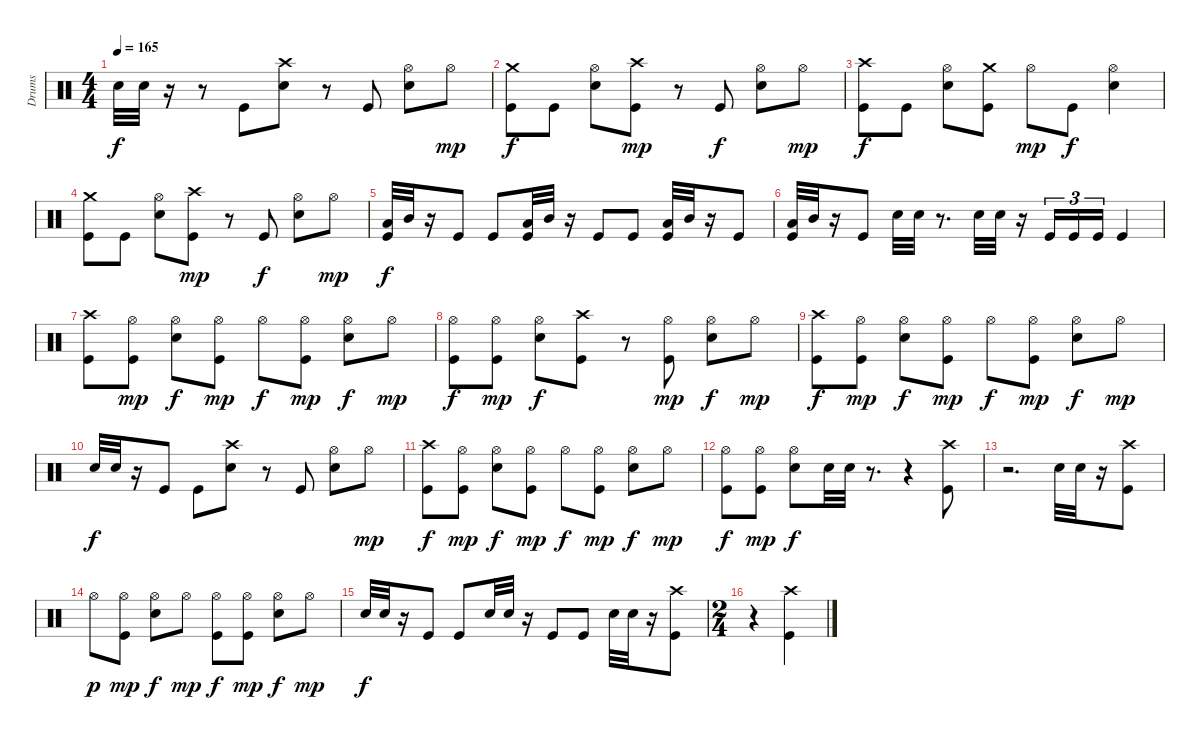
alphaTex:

\track ("Drums" "Drums") {instrument percussion}
\staff {score}
\articulation defaults
\ts (4 4)
\tempo 165
\clef neutral
\ks c "Snare (hit) 2".32{dy f} "Snare (hit) 2".32
r.16 r.8 "Kick (hit)".8 ("Crash high (hit)" "Snare (hit) 2").8 r.8 "Kick (hit)".8 ("Hi-Hat (open)" "Snare (hit) 2").8 "Hi-Hat (open)".8{dy mp} |
("Crash medium (hit)" "Kick (hit)").8{dy f} "Kick (hit)".8 ("Hi-Hat (open)" "Snare (hit) 2").8 ("Crash high (hit)" "Kick (hit)").8{dy mp} r.8 "Kick (hit)".8{dy f} ("Hi-Hat (open)" "Snare (hit) 2").8 "Hi-Hat (open)".8{dy mp} |
("Crash high (hit)" "Kick (hit)").8{dy f} "Kick (hit)".8 ("Hi-Hat (open)" "Snare (hit) 2").8 ("Crash medium (hit)" "Kick (hit)").8 "Hi-Hat (open)".8{dy mp} "Kick (hit)".8{dy f} ("Hi-Hat (open)" "Snare (hit) 2").4 |
("Crash medium (hit)" "Kick (hit)").8 "Kick (hit)".8 ("Hi-Hat (open)" "Snare (hit) 2").8 ("Crash high (hit)" "Kick (hit)").8{dy mp} r.8 "Kick (hit)".8{dy f} ("Hi-Hat (open)" "Snare (hit) 2").8 "Hi-Hat (open)".8{dy mp} |
("Low Tom (hit)" "Kick (hit)").32{dy f} "Mid Tom (hit)".32 r.16 "Kick (hit)".8 "Kick (hit)".8 ("Low Tom (hit)" "Kick (hit)").32 "Mid Tom (hit)".32 r.16 "Kick (hit)".8 "Kick (hit)".8 ("Low Tom (hit)" "Kick (hit)").32 "Mid Tom (hit)".32 r.16 "Kick (hit)".8 |
("Low Tom (hit)" "Kick (hit)").32 "Mid Tom (hit)".32 r.16 "Kick (hit)".8 "Snare (hit) 2".32 "Snare (hit) 2".32 r.8{d} "Snare (hit) 2".32 "Snare (hit) 2".32 r.16 "Kick (hit)".16{tu (3 2)} "Kick (hit)".16{tu (3 2)} "Kick (hit)".16{tu (3 2)} "Kick (hit)".4 |
("Crash high (hit)" "Kick (hit)").8 ("Hi-Hat (open)" "Kick (hit)").8{dy mp} ("Hi-Hat (open)" "Snare (hit) 2").8{dy f} ("Hi-Hat (open)" "Kick (hit)").8{dy mp} "Hi-Hat (open)".8{dy f} ("Hi-Hat (open)" "Kick (hit)").8{dy mp} ("Hi-Hat (open)" "Snare (hit) 2").8{dy f} "Hi-Hat (open)".8{dy mp} |
("Hi-Hat (open)" "Kick (hit)").8{dy f} ("Hi-Hat (open)" "Kick (hit)").8{dy mp} ("Hi-Hat (open)" "Snare (hit) 2").8{dy f} ("Crash high (hit)" "Kick (hit)").8 r.8 ("Hi-Hat (open)" "Kick (hit)").8{dy mp} ("Hi-Hat (open)" "Snare (hit) 2").8{dy f} "Hi-Hat (open)".8{dy mp} |
("Crash high (hit)" "Kick (hit)").8{dy f} ("Hi-Hat (open)" "Kick (hit)").8{dy mp} ("Hi-Hat (open)" "Snare (hit) 2").8{dy f} ("Hi-Hat (open)" "Kick (hit)").8{dy mp} "Hi-Hat (open)".8{dy f} ("Hi-Hat (open)" "Kick (hit)").8{dy mp} ("Hi-Hat (open)" "Snare (hit) 2").8{dy f} "Hi-Hat (open)".8{dy mp} |
"Snare (hit) 2".32{dy f} "Snare (hit) 2".32 r.16 "Kick (hit)".8 "Kick (hit)".8 ("Crash high (hit)" "Snare (hit) 2").8 r.8 "Kick (hit)".8 ("Hi-Hat (open)" "Snare (hit) 2").8 "Hi-Hat (open)".8{dy mp} |
("Crash high (hit)" "Kick (hit)").8{dy f} ("Hi-Hat (open)" "Kick (hit)").8{dy mp} ("Hi-Hat (open)" "Snare (hit) 2").8{dy f} ("Hi-Hat (open)" "Kick (hit)").8{dy mp} "Hi-Hat (open)".8{dy f} ("Hi-Hat (open)" "Kick (hit)").8{dy mp} ("Hi-Hat (open)" "Snare (hit) 2").8{dy f} "Hi-Hat (open)".8{dy mp} |
("Hi-Hat (open)" "Kick (hit)").8{dy f} ("Hi-Hat (open)" "Kick (hit)").8{dy mp} ("Hi-Hat (open)" "Snare (hit) 2").8{dy f} "Snare (hit) 2".32 "Snare (hit) 2".32 r.8{d} r.4 ("Crash high (hit)" "Kick (hit)").8 |
r.2{d} "Snare (hit) 2".32 "Snare (hit) 2".32 r.16 ("Crash high (hit)" "Kick (hit)").8 |
"Hi-Hat (open)".8{dy p} ("Hi-Hat (open)" "Kick (hit)").8{dy mp} ("Hi-Hat (open)" "Snare (hit) 2").8{dy f} "Hi-Hat (open)".8{dy mp} ("Hi-Hat (open)" "Kick (hit)").8{dy f} ("Hi-Hat (open)" "Kick (hit)").8{dy mp} ("Hi-Hat (open)" "Snare (hit) 2").8{dy f} "Hi-Hat (open)".8{dy mp} |
"Snare (hit) 2".32{dy f} "Snare (hit) 2".32 r.16 "Kick (hit)".8 "Kick (hit)".8 "Snare (hit) 2".32 "Snare (hit) 2".32 r.16 "Kick (hit)".8 "Kick (hit)".8 "Snare (hit) 2".32 "Snare (hit) 2".32 r.16 ("Crash high (hit)" "Kick (hit)").8 |
\ts (2 4)
r.4 ("Crash high (hit)" "Kick (hit)").4
